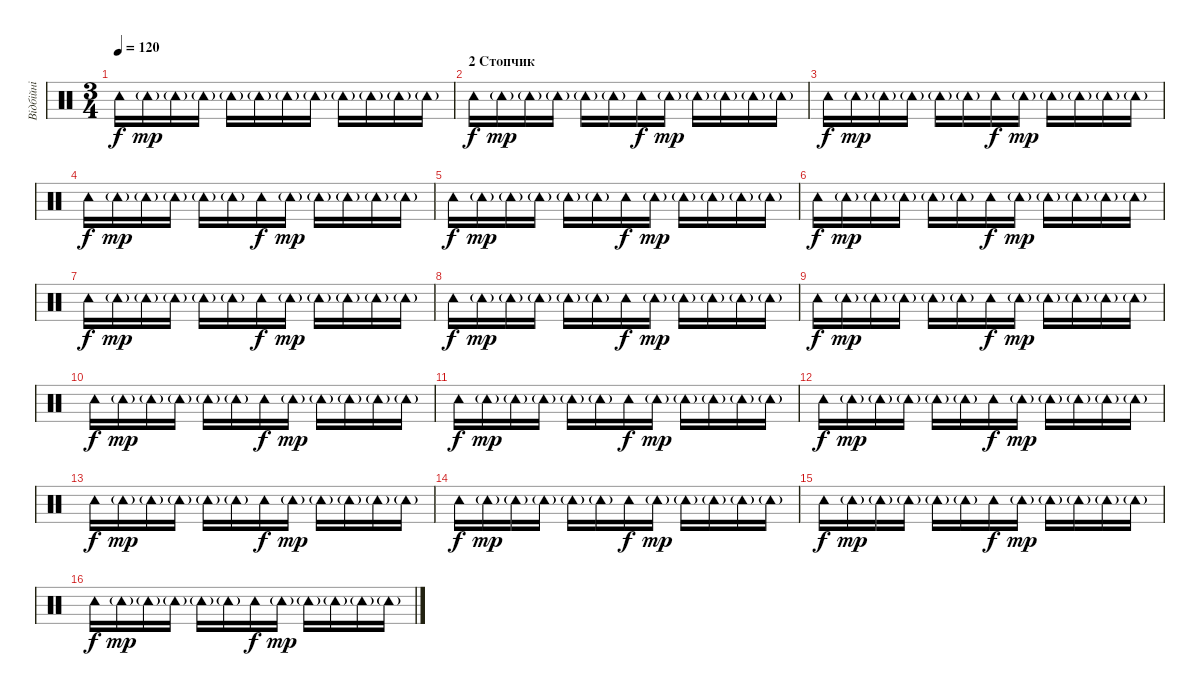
\track ("Вiдбiйнi" "Вiдбiйнi") {instrument percussion}
\staff {score}
\articulation defaults
\ts (3 4)
\tempo 120
\clef neutral
\ks c "Tambourine (hit)".16{dy f} "Tambourine (hit)"{g}.16{dy mp} "Tambourine (hit)"{g}.16 "Tambourine (hit)"{g}.16 "Tambourine (hit)"{g}.16 "Tambourine (hit)"{g}.16 "Tambourine (hit)"{g}.16 "Tambourine (hit)"{g}.16 "Tambourine (hit)"{g}.16 "Tambourine (hit)"{g}.16 "Tambourine (hit)"{g}.16 "Tambourine (hit)"{g}.16
|
\section ("" "2 Стопчик")
"Tambourine (hit)".16{dy f} "Tambourine (hit)"{g}.16{dy mp} "Tambourine (hit)"{g}.16 "Tambourine (hit)"{g}.16 "Tambourine (hit)"{g}.16 "Tambourine (hit)"{g}.16 "Tambourine (hit)".16{dy f} "Tambourine (hit)"{g}.16{dy mp} "Tambourine (hit)"{g}.16 "Tambourine (hit)"{g}.16 "Tambourine (hit)"{g}.16 "Tambourine (hit)"{g}.16 |
"Tambourine (hit)".16{dy f} "Tambourine (hit)"{g}.16{dy mp} "Tambourine (hit)"{g}.16 "Tambourine (hit)"{g}.16 "Tambourine (hit)"{g}.16 "Tambourine (hit)"{g}.16 "Tambourine (hit)".16{dy f} "Tambourine (hit)"{g}.16{dy mp} "Tambourine (hit)"{g}.16 "Tambourine (hit)"{g}.16 "Tambourine (hit)"{g}.16 "Tambourine (hit)"{g}.16 |
"Tambourine (hit)".16{dy f} "Tambourine (hit)"{g}.16{dy mp} "Tambourine (hit)"{g}.16 "Tambourine (hit)"{g}.16 "Tambourine (hit)"{g}.16 "Tambourine (hit)"{g}.16 "Tambourine (hit)".16{dy f} "Tambourine (hit)"{g}.16{dy mp} "Tambourine (hit)"{g}.16 "Tambourine (hit)"{g}.16 "Tambourine (hit)"{g}.16 "Tambourine (hit)"{g}.16 |
"Tambourine (hit)".16{dy f} "Tambourine (hit)"{g}.16{dy mp} "Tambourine (hit)"{g}.16 "Tambourine (hit)"{g}.16 "Tambourine (hit)"{g}.16 "Tambourine (hit)"{g}.16 "Tambourine (hit)".16{dy f} "Tambourine (hit)"{g}.16{dy mp} "Tambourine (hit)"{g}.16 "Tambourine (hit)"{g}.16 "Tambourine (hit)"{g}.16 "Tambourine (hit)"{g}.16 |
"Tambourine (hit)".16{dy f} "Tambourine (hit)"{g}.16{dy mp} "Tambourine (hit)"{g}.16 "Tambourine (hit)"{g}.16 "Tambourine (hit)"{g}.16 "Tambourine (hit)"{g}.16 "Tambourine (hit)".16{dy f} "Tambourine (hit)"{g}.16{dy mp} "Tambourine (hit)"{g}.16 "Tambourine (hit)"{g}.16 "Tambourine (hit)"{g}.16 "Tambourine (hit)"{g}.16 |
"Tambourine (hit)".16{dy f} "Tambourine (hit)"{g}.16{dy mp} "Tambourine (hit)"{g}.16 "Tambourine (hit)"{g}.16 "Tambourine (hit)"{g}.16 "Tambourine (hit)"{g}.16 "Tambourine (hit)".16{dy f} "Tambourine (hit)"{g}.16{dy mp} "Tambourine (hit)"{g}.16 "Tambourine (hit)"{g}.16 "Tambourine (hit)"{g}.16 "Tambourine (hit)"{g}.16 |
"Tambourine (hit)".16{dy f} "Tambourine (hit)"{g}.16{dy mp} "Tambourine (hit)"{g}.16 "Tambourine (hit)"{g}.16 "Tambourine (hit)"{g}.16 "Tambourine (hit)"{g}.16 "Tambourine (hit)".16{dy f} "Tambourine (hit)"{g}.16{dy mp} "Tambourine (hit)"{g}.16 "Tambourine (hit)"{g}.16 "Tambourine (hit)"{g}.16 "Tambourine (hit)"{g}.16 |
"Tambourine (hit)".16{dy f} "Tambourine (hit)"{g}.16{dy mp} "Tambourine (hit)"{g}.16 "Tambourine (hit)"{g}.16 "Tambourine (hit)"{g}.16 "Tambourine (hit)"{g}.16 "Tambourine (hit)".16{dy f} "Tambourine (hit)"{g}.16{dy mp} "Tambourine (hit)"{g}.16 "Tambourine (hit)"{g}.16 "Tambourine (hit)"{g}.16 "Tambourine (hit)"{g}.16 |
"Tambourine (hit)".16{dy f} "Tambourine (hit)"{g}.16{dy mp} "Tambourine (hit)"{g}.16 "Tambourine (hit)"{g}.16 "Tambourine (hit)"{g}.16 "Tambourine (hit)"{g}.16 "Tambourine (hit)".16{dy f} "Tambourine (hit)"{g}.16{dy mp} "Tambourine (hit)"{g}.16 "Tambourine (hit)"{g}.16 "Tambourine (hit)"{g}.16 "Tambourine (hit)"{g}.16 |
"Tambourine (hit)".16{dy f} "Tambourine (hit)"{g}.16{dy mp} "Tambourine (hit)"{g}.16 "Tambourine (hit)"{g}.16 "Tambourine (hit)"{g}.16 "Tambourine (hit)"{g}.16 "Tambourine (hit)".16{dy f} "Tambourine (hit)"{g}.16{dy mp} "Tambourine (hit)"{g}.16 "Tambourine (hit)"{g}.16 "Tambourine (hit)"{g}.16 "Tambourine (hit)"{g}.16 |
"Tambourine (hit)".16{dy f} "Tambourine (hit)"{g}.16{dy mp} "Tambourine (hit)"{g}.16 "Tambourine (hit)"{g}.16 "Tambourine (hit)"{g}.16 "Tambourine (hit)"{g}.16 "Tambourine (hit)".16{dy f} "Tambourine (hit)"{g}.16{dy mp} "Tambourine (hit)"{g}.16 "Tambourine (hit)"{g}.16 "Tambourine (hit)"{g}.16 "Tambourine (hit)"{g}.16 |
"Tambourine (hit)".16{dy f} "Tambourine (hit)"{g}.16{dy mp} "Tambourine (hit)"{g}.16 "Tambourine (hit)"{g}.16 "Tambourine (hit)"{g}.16 "Tambourine (hit)"{g}.16 "Tambourine (hit)".16{dy f} "Tambourine (hit)"{g}.16{dy mp} "Tambourine (hit)"{g}.16 "Tambourine (hit)"{g}.16 "Tambourine (hit)"{g}.16 "Tambourine (hit)"{g}.16 |
"Tambourine (hit)".16{dy f} "Tambourine (hit)"{g}.16{dy mp} "Tambourine (hit)"{g}.16 "Tambourine (hit)"{g}.16 "Tambourine (hit)"{g}.16 "Tambourine (hit)"{g}.16 "Tambourine (hit)".16{dy f} "Tambourine (hit)"{g}.16{dy mp} "Tambourine (hit)"{g}.16 "Tambourine (hit)"{g}.16 "Tambourine (hit)"{g}.16 "Tambourine (hit)"{g}.16 |
"Tambourine (hit)".16{dy f} "Tambourine (hit)"{g}.16{dy mp} "Tambourine (hit)"{g}.16 "Tambourine (hit)"{g}.16 "Tambourine (hit)"{g}.16 "Tambourine (hit)"{g}.16 "Tambourine (hit)".16{dy f} "Tambourine (hit)"{g}.16{dy mp} "Tambourine (hit)"{g}.16 "Tambourine (hit)"{g}.16 "Tambourine (hit)"{g}.16 "Tambourine (hit)"{g}.16 |
"Tambourine (hit)".16{dy f} "Tambourine (hit)"{g}.16{dy mp} "Tambourine (hit)"{g}.16 "Tambourine (hit)"{g}.16 "Tambourine (hit)"{g}.16 "Tambourine (hit)"{g}.16 "Tambourine (hit)".16{dy f} "Tambourine (hit)"{g}.16{dy mp} "Tambourine (hit)"{g}.16 "Tambourine (hit)"{g}.16 "Tambourine (hit)"{g}.16 "Tambourine (hit)"{g}.16
